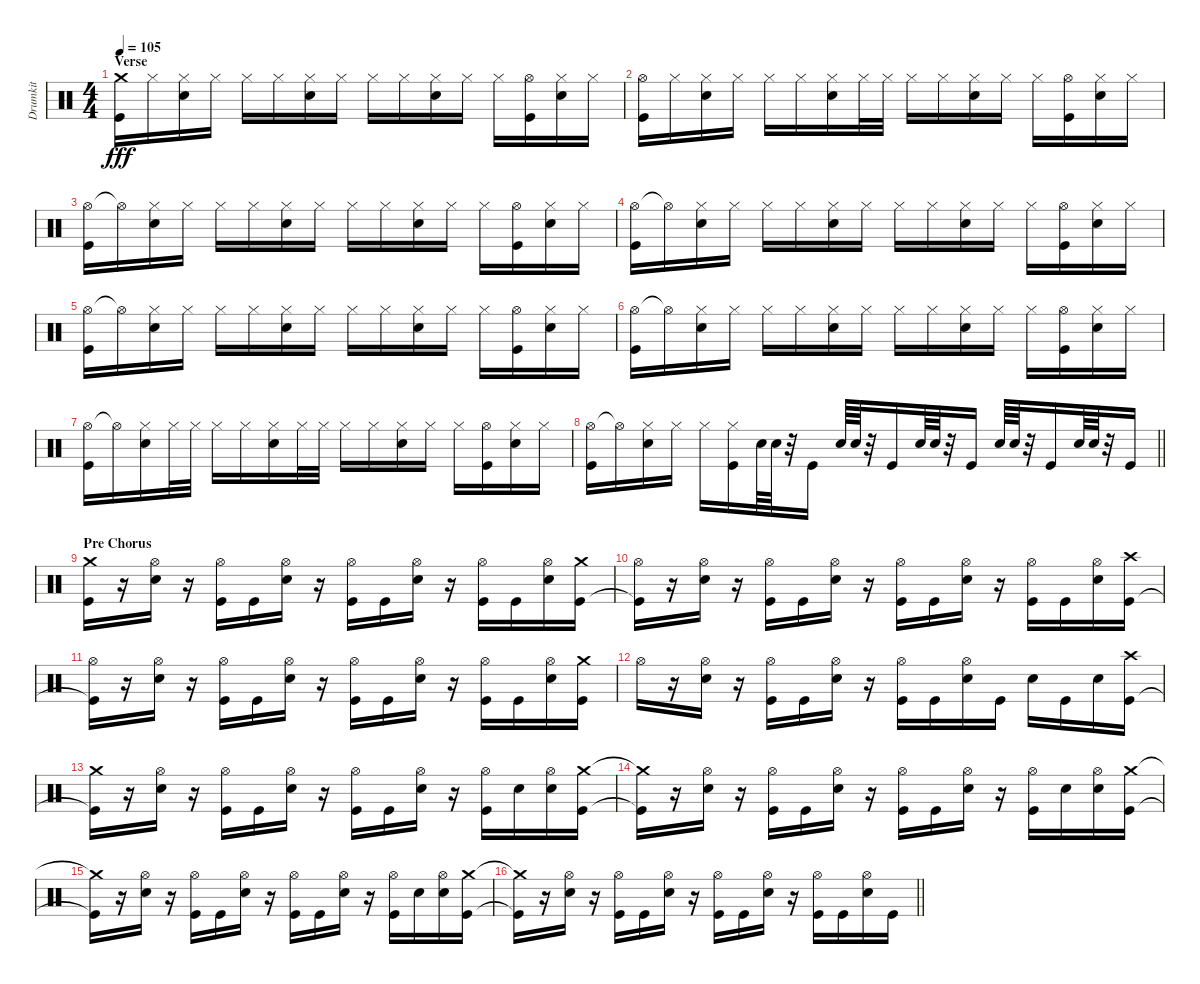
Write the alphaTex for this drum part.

\track ("Drumkit" "Drumkit") {instrument percussion}
\staff {score}
\articulation defaults
\ts (4 4)
\section ("" "Verse")
\tempo 105
\clef neutral
\ks c
("Crash medium (hit)" "Kick (hit)").16{dy fff} "Hi-Hat (closed)".16 ("Hi-Hat (closed)" "Snare (hit) 2").16 "Hi-Hat (closed)".16 "Hi-Hat (closed)".16 "Hi-Hat (closed)".16 ("Hi-Hat (closed)" "Snare (hit) 2").16 "Hi-Hat (closed)".16 "Hi-Hat (closed)".16 "Hi-Hat (closed)".16 ("Hi-Hat (closed)" "Snare (hit) 2").16 "Hi-Hat (closed)".16 "Hi-Hat (closed)".16 ("Hi-Hat (open)" "Kick (hit)").16 ("Hi-Hat (closed)" "Snare (hit) 2").16 "Hi-Hat (closed)".16 |
("Hi-Hat (open)" "Kick (hit)").16 "Hi-Hat (closed)".16 ("Hi-Hat (closed)" "Snare (hit) 2").16 "Hi-Hat (closed)".16 "Hi-Hat (closed)".16 "Hi-Hat (closed)".16 ("Hi-Hat (closed)" "Snare (hit) 2").16 "Hi-Hat (closed)".32 "Hi-Hat (closed)".32 "Hi-Hat (closed)".16 "Hi-Hat (closed)".16 ("Hi-Hat (closed)" "Snare (hit) 2").16 "Hi-Hat (closed)".16 "Hi-Hat (closed)".16 ("Hi-Hat (open)" "Kick (hit)").16 ("Hi-Hat (closed)" "Snare (hit) 2").16 "Hi-Hat (closed)".16 |
("Hi-Hat (open)" "Kick (hit)").16 "Hi-Hat (open)"{t}.16 ("Hi-Hat (closed)" "Snare (hit) 2").16 "Hi-Hat (closed)".16 "Hi-Hat (closed)".16 "Hi-Hat (closed)".16 ("Hi-Hat (closed)" "Snare (hit) 2").16 "Hi-Hat (closed)".16 "Hi-Hat (closed)".16 "Hi-Hat (closed)".16 ("Hi-Hat (closed)" "Snare (hit) 2").16 "Hi-Hat (closed)".16 "Hi-Hat (closed)".16 ("Hi-Hat (open)" "Kick (hit)").16 ("Hi-Hat (closed)" "Snare (hit) 2").16 "Hi-Hat (closed)".16 |
("Hi-Hat (open)" "Kick (hit)").16 "Hi-Hat (open)"{t}.16 ("Hi-Hat (closed)" "Snare (hit) 2").16 "Hi-Hat (closed)".16 "Hi-Hat (closed)".16 "Hi-Hat (closed)".16 ("Hi-Hat (closed)" "Snare (hit) 2").16 "Hi-Hat (closed)".16 "Hi-Hat (closed)".16 "Hi-Hat (closed)".16 ("Hi-Hat (closed)" "Snare (hit) 2").16 "Hi-Hat (closed)".16 "Hi-Hat (closed)".16 ("Hi-Hat (open)" "Kick (hit)").16 ("Hi-Hat (closed)" "Snare (hit) 2").16 "Hi-Hat (closed)".16 |
("Hi-Hat (open)" "Kick (hit)").16 "Hi-Hat (open)"{t}.16 ("Hi-Hat (closed)" "Snare (hit) 2").16 "Hi-Hat (closed)".16 "Hi-Hat (closed)".16 "Hi-Hat (closed)".16 ("Hi-Hat (closed)" "Snare (hit) 2").16 "Hi-Hat (closed)".16 "Hi-Hat (closed)".16 "Hi-Hat (closed)".16 ("Hi-Hat (closed)" "Snare (hit) 2").16 "Hi-Hat (closed)".16 "Hi-Hat (closed)".16 ("Hi-Hat (open)" "Kick (hit)").16 ("Hi-Hat (closed)" "Snare (hit) 2").16 "Hi-Hat (closed)".16 |
("Hi-Hat (open)" "Kick (hit)").16 "Hi-Hat (open)"{t}.16 ("Hi-Hat (closed)" "Snare (hit) 2").16 "Hi-Hat (closed)".16 "Hi-Hat (closed)".16 "Hi-Hat (closed)".16 ("Hi-Hat (closed)" "Snare (hit) 2").16 "Hi-Hat (closed)".16 "Hi-Hat (closed)".16 "Hi-Hat (closed)".16 ("Hi-Hat (closed)" "Snare (hit) 2").16 "Hi-Hat (closed)".16 "Hi-Hat (closed)".16 ("Hi-Hat (open)" "Kick (hit)").16 ("Hi-Hat (closed)" "Snare (hit) 2").16 "Hi-Hat (closed)".16 |
("Hi-Hat (open)" "Kick (hit)").16 "Hi-Hat (open)"{t}.16 ("Hi-Hat (closed)" "Snare (hit) 2").16 "Hi-Hat (closed)".32 "Hi-Hat (closed)".32 "Hi-Hat (closed)".16 "Hi-Hat (closed)".16 ("Hi-Hat (closed)" "Snare (hit) 2").16 "Hi-Hat (closed)".32 "Hi-Hat (closed)".32 "Hi-Hat (closed)".16 "Hi-Hat (closed)".16 ("Hi-Hat (closed)" "Snare (hit) 2").16 "Hi-Hat (closed)".16 "Hi-Hat (closed)".16 ("Hi-Hat (open)" "Kick (hit)").16 ("Hi-Hat (closed)" "Snare (hit) 2").16 "Hi-Hat (closed)".16 |
\barLineRight lightlight
("Hi-Hat (open)" "Kick (hit)").16 "Hi-Hat (open)"{t}.16 ("Hi-Hat (closed)" "Snare (hit) 2").16 "Hi-Hat (closed)".16 "Hi-Hat (closed)".16 ("Hi-Hat (closed)" "Kick (hit)").16 "Snare (hit) 2".64 "Snare (hit) 2".64 r.32 "Kick (hit)".16 "Snare (hit) 2".64 "Snare (hit) 2".64 r.32 "Kick (hit)".16 "Snare (hit) 2".64 "Snare (hit) 2".64 r.32 "Kick (hit)".16 "Snare (hit) 2".64 "Snare (hit) 2".64 r.32 "Kick (hit)".16 "Snare (hit) 2".64 "Snare (hit) 2".64 r.32 "Kick (hit)".16 |
\section ("" "Pre Chorus")
("Crash medium (hit)" "Kick (hit)").16 r.16 ("Hi-Hat (open)" "Snare (hit) 2").16 r.16 ("Hi-Hat (open)" "Kick (hit)").16 "Kick (hit)".16 ("Hi-Hat (open)" "Snare (hit) 2").16 r.16 ("Hi-Hat (open)" "Kick (hit)").16 "Kick (hit)".16 ("Hi-Hat (open)" "Snare (hit) 2").16 r.16 ("Hi-Hat (open)" "Kick (hit)").16 "Kick (hit)".16 ("Hi-Hat (open)" "Snare (hit) 2").16 ("Crash medium (hit)" "Kick (hit)").16 |
("Hi-Hat (open)" "Kick (hit)"{t}).16 r.16 ("Hi-Hat (open)" "Snare (hit) 2").16 r.16 ("Hi-Hat (open)" "Kick (hit)").16 "Kick (hit)".16 ("Hi-Hat (open)" "Snare (hit) 2").16 r.16 ("Hi-Hat (open)" "Kick (hit)").16 "Kick (hit)".16 ("Hi-Hat (open)" "Snare (hit) 2").16 r.16 ("Hi-Hat (open)" "Kick (hit)").16 "Kick (hit)".16 ("Hi-Hat (open)" "Snare (hit) 2").16 ("Crash high (hit)" "Kick (hit)").16 |
("Hi-Hat (open)" "Kick (hit)"{t}).16 r.16 ("Hi-Hat (open)" "Snare (hit) 2").16 r.16 ("Hi-Hat (open)" "Kick (hit)").16 "Kick (hit)".16 ("Hi-Hat (open)" "Snare (hit) 2").16 r.16 ("Hi-Hat (open)" "Kick (hit)").16 "Kick (hit)".16 ("Hi-Hat (open)" "Snare (hit) 2").16 r.16 ("Hi-Hat (open)" "Kick (hit)").16 "Kick (hit)".16 ("Hi-Hat (open)" "Snare (hit) 2").16 ("Crash medium (hit)" "Kick (hit)").16 |
"Hi-Hat (open)".16 r.16 ("Hi-Hat (open)" "Snare (hit) 2").16 r.16 ("Hi-Hat (open)" "Kick (hit)").16 "Kick (hit)".16 ("Hi-Hat (open)" "Snare (hit) 2").16 r.16 ("Hi-Hat (open)" "Kick (hit)").16 "Kick (hit)".16 ("Hi-Hat (open)" "Snare (hit) 2").16 "Kick (hit)".16 "Snare (hit) 2".16 "Kick (hit)".16 "Snare (hit) 2".16 ("Crash high (hit)" "Kick (hit)").16 |
("Crash medium (hit)" "Kick (hit)"{t}).16 r.16 ("Hi-Hat (open)" "Snare (hit) 2").16 r.16 ("Hi-Hat (open)" "Kick (hit)").16 "Kick (hit)".16 ("Hi-Hat (open)" "Snare (hit) 2").16 r.16 ("Hi-Hat (open)" "Kick (hit)").16 "Kick (hit)".16 ("Hi-Hat (open)" "Snare (hit) 2").16 r.16 ("Hi-Hat (open)" "Kick (hit)").16 "Snare (hit) 2".16 ("Hi-Hat (open)" "Snare (hit) 2").16 ("Crash medium (hit)" "Kick (hit)").16 |
("Crash medium (hit)"{t} "Kick (hit)"{t}).16 r.16 ("Hi-Hat (open)" "Snare (hit) 2").16 r.16 ("Hi-Hat (open)" "Kick (hit)").16 "Kick (hit)".16 ("Hi-Hat (open)" "Snare (hit) 2").16 r.16 ("Hi-Hat (open)" "Kick (hit)").16 "Kick (hit)".16 ("Hi-Hat (open)" "Snare (hit) 2").16 r.16 ("Hi-Hat (open)" "Kick (hit)").16 "Snare (hit) 2".16 ("Hi-Hat (open)" "Snare (hit) 2").16 ("Crash medium (hit)" "Kick (hit)").16 |
("Crash medium (hit)"{t} "Kick (hit)"{t}).16 r.16 ("Hi-Hat (open)" "Snare (hit) 2").16 r.16 ("Hi-Hat (open)" "Kick (hit)").16 "Kick (hit)".16 ("Hi-Hat (open)" "Snare (hit) 2").16 r.16 ("Hi-Hat (open)" "Kick (hit)").16 "Kick (hit)".16 ("Hi-Hat (open)" "Snare (hit) 2").16 r.16 ("Hi-Hat (open)" "Kick (hit)").16 "Snare (hit) 2".16 ("Hi-Hat (open)" "Snare (hit) 2").16 ("Crash medium (hit)" "Kick (hit)").16 |
\barLineRight lightlight
("Crash medium (hit)"{t} "Kick (hit)"{t}).16 r.16 ("Hi-Hat (open)" "Snare (hit) 2").16 r.16 ("Hi-Hat (open)" "Kick (hit)").16 "Kick (hit)".16 ("Hi-Hat (open)" "Snare (hit) 2").16 r.16 ("Hi-Hat (open)" "Kick (hit)").16 "Kick (hit)".16 ("Hi-Hat (open)" "Snare (hit) 2").16 r.16 ("Hi-Hat (open)" "Kick (hit)").16 "Kick (hit)".16 ("Hi-Hat (open)" "Snare (hit) 2").16 "Kick (hit)".16
